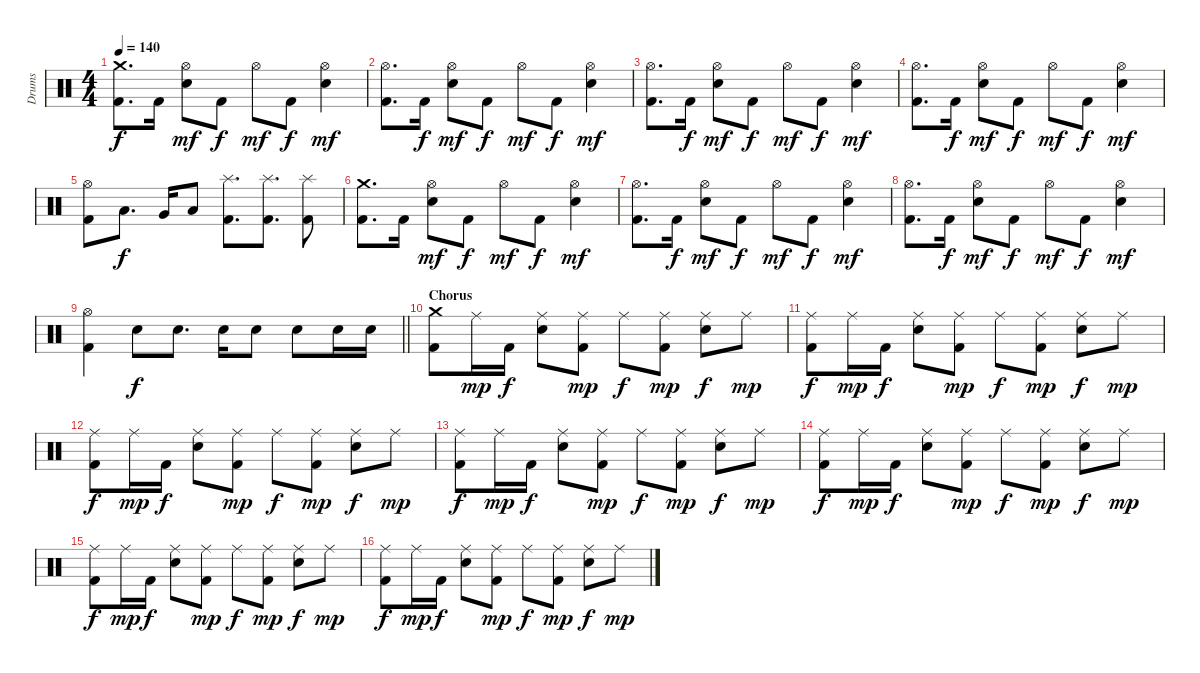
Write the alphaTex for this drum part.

\track ("Drums" "Drums") {instrument percussion}
\staff {score}
\articulation defaults
\ts (4 4)
\tempo 140
\clef neutral
\ks c
("Kick (hit) 2" "Crash medium (hit)").8{d dy f} "Kick (hit) 2".16 ("Hi-Hat (open)" "Electric Snare (hit)").8{dy mf} "Kick (hit) 2".8{dy f} "Hi-Hat (open)".8{dy mf} "Kick (hit) 2".8{dy f} ("Hi-Hat (open)" "Electric Snare (hit)").4{dy mf} |
("Kick (hit) 2" "Hi-Hat (open)").8{d} "Kick (hit) 2".16{dy f} ("Hi-Hat (open)" "Electric Snare (hit)").8{dy mf} "Kick (hit) 2".8{dy f} "Hi-Hat (open)".8{dy mf} "Kick (hit) 2".8{dy f} ("Hi-Hat (open)" "Electric Snare (hit)").4{dy mf} |
("Kick (hit) 2" "Hi-Hat (open)").8{d} "Kick (hit) 2".16{dy f} ("Hi-Hat (open)" "Electric Snare (hit)").8{dy mf} "Kick (hit) 2".8{dy f} "Hi-Hat (open)".8{dy mf} "Kick (hit) 2".8{dy f} ("Hi-Hat (open)" "Electric Snare (hit)").4{dy mf} |
("Kick (hit) 2" "Hi-Hat (open)").8{d} "Kick (hit) 2".16{dy f} ("Hi-Hat (open)" "Electric Snare (hit)").8{dy mf} "Kick (hit) 2".8{dy f} "Hi-Hat (open)".8{dy mf} "Kick (hit) 2".8{dy f} ("Hi-Hat (open)" "Electric Snare (hit)").4{dy mf} |
("Kick (hit) 2" "Hi-Hat (open)").8 "Low Tom (hit)".8{d dy f} "Very Low Tom (hit)".16 "Low Floor Tom (hit)".8 ("Kick (hit) 2" "Splash (hit)").8{d} ("Kick (hit) 2" "Splash (hit)").8{d} ("Kick (hit) 2" "Splash (hit)").8 |
("Kick (hit) 2" "Crash medium (hit)").8{d} "Kick (hit) 2".16 ("Hi-Hat (open)" "Electric Snare (hit)").8{dy mf} "Kick (hit) 2".8{dy f} "Hi-Hat (open)".8{dy mf} "Kick (hit) 2".8{dy f} ("Hi-Hat (open)" "Electric Snare (hit)").4{dy mf} |
("Kick (hit) 2" "Hi-Hat (open)").8{d} "Kick (hit) 2".16{dy f} ("Hi-Hat (open)" "Electric Snare (hit)").8{dy mf} "Kick (hit) 2".8{dy f} "Hi-Hat (open)".8{dy mf} "Kick (hit) 2".8{dy f} ("Hi-Hat (open)" "Electric Snare (hit)").4{dy mf} |
("Kick (hit) 2" "Hi-Hat (open)").8{d} "Kick (hit) 2".16{dy f} ("Hi-Hat (open)" "Electric Snare (hit)").8{dy mf} "Kick (hit) 2".8{dy f} "Hi-Hat (open)".8{dy mf} "Kick (hit) 2".8{dy f} ("Hi-Hat (open)" "Electric Snare (hit)").4{dy mf} |
\barLineRight lightlight
("Kick (hit) 2" "Hi-Hat (open)").4 "Electric Snare (hit)".8{dy f} "Electric Snare (hit)".8{d} "Electric Snare (hit)".16 "Electric Snare (hit)".8 "Electric Snare (hit)".8 "Electric Snare (hit)".16 "Electric Snare (hit)".16 |
\section ("" "Chorus")
("Kick (hit) 2" "Crash medium (hit)").8 "Ride (middle)".16{dy mp} "Kick (hit) 2".16{dy f} ("Ride (middle)" "Electric Snare (hit)").8 ("Kick (hit) 2" "Ride (middle)").8{dy mp} "Ride (middle)".8{dy f} ("Kick (hit) 2" "Ride (middle)").8{dy mp} ("Ride (middle)" "Electric Snare (hit)").8{dy f} "Ride (middle)".8{dy mp} |
("Kick (hit) 2" "Ride (middle)").8{dy f} "Ride (middle)".16{dy mp} "Kick (hit) 2".16{dy f} ("Ride (middle)" "Electric Snare (hit)").8 ("Kick (hit) 2" "Ride (middle)").8{dy mp} "Ride (middle)".8{dy f} ("Kick (hit) 2" "Ride (middle)").8{dy mp} ("Ride (middle)" "Electric Snare (hit)").8{dy f} "Ride (middle)".8{dy mp} |
("Kick (hit) 2" "Ride (middle)").8{dy f} "Ride (middle)".16{dy mp} "Kick (hit) 2".16{dy f} ("Ride (middle)" "Electric Snare (hit)").8 ("Kick (hit) 2" "Ride (middle)").8{dy mp} "Ride (middle)".8{dy f} ("Kick (hit) 2" "Ride (middle)").8{dy mp} ("Ride (middle)" "Electric Snare (hit)").8{dy f} "Ride (middle)".8{dy mp} |
("Kick (hit) 2" "Ride (middle)").8{dy f} "Ride (middle)".16{dy mp} "Kick (hit) 2".16{dy f} ("Ride (middle)" "Electric Snare (hit)").8 ("Kick (hit) 2" "Ride (middle)").8{dy mp} "Ride (middle)".8{dy f} ("Kick (hit) 2" "Ride (middle)").8{dy mp} ("Ride (middle)" "Electric Snare (hit)").8{dy f} "Ride (middle)".8{dy mp} |
("Kick (hit) 2" "Ride (middle)").8{dy f} "Ride (middle)".16{dy mp} "Kick (hit) 2".16{dy f} ("Ride (middle)" "Electric Snare (hit)").8 ("Kick (hit) 2" "Ride (middle)").8{dy mp} "Ride (middle)".8{dy f} ("Kick (hit) 2" "Ride (middle)").8{dy mp} ("Ride (middle)" "Electric Snare (hit)").8{dy f} "Ride (middle)".8{dy mp} |
("Kick (hit) 2" "Ride (middle)").8{dy f} "Ride (middle)".16{dy mp} "Kick (hit) 2".16{dy f} ("Ride (middle)" "Electric Snare (hit)").8 ("Kick (hit) 2" "Ride (middle)").8{dy mp} "Ride (middle)".8{dy f} ("Kick (hit) 2" "Ride (middle)").8{dy mp} ("Ride (middle)" "Electric Snare (hit)").8{dy f} "Ride (middle)".8{dy mp} |
("Kick (hit) 2" "Ride (middle)").8{dy f} "Ride (middle)".16{dy mp} "Kick (hit) 2".16{dy f} ("Ride (middle)" "Electric Snare (hit)").8 ("Kick (hit) 2" "Ride (middle)").8{dy mp} "Ride (middle)".8{dy f} ("Kick (hit) 2" "Ride (middle)").8{dy mp} ("Ride (middle)" "Electric Snare (hit)").8{dy f} "Ride (middle)".8{dy mp}
